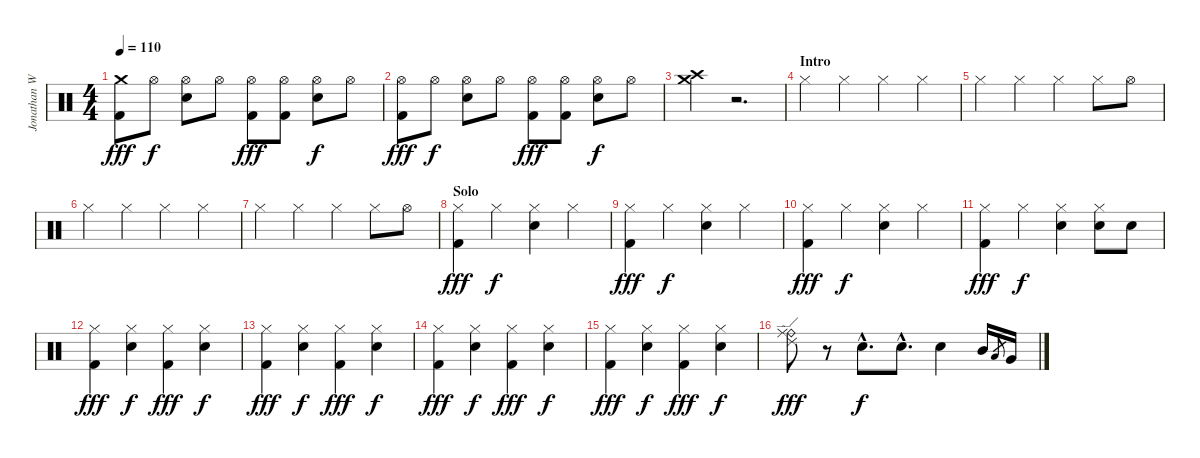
\track ("Jonathan Wenzel" "Jonathan W") {instrument percussion}
\staff {score}
\articulation defaults
\ts (4 4)
\tempo 110
\clef neutral
\ks c
("Crash medium (hit)" "Kick (hit) 2").8{dy fff} "Hi-Hat (open)".8{dy f} ("Hi-Hat (open)" "Electric Snare (hit)").8 "Hi-Hat (open)".8 ("Hi-Hat (open)" "Kick (hit) 2").8{dy fff} ("Hi-Hat (open)" "Kick (hit) 2").8 ("Hi-Hat (open)" "Electric Snare (hit)").8{dy f} "Hi-Hat (open)".8 |
("Hi-Hat (open)" "Kick (hit) 2").8{dy fff} "Hi-Hat (open)".8{dy f} ("Hi-Hat (open)" "Electric Snare (hit)").8 "Hi-Hat (open)".8 ("Hi-Hat (open)" "Kick (hit) 2").8{dy fff} ("Hi-Hat (open)" "Kick (hit) 2").8 ("Hi-Hat (open)" "Electric Snare (hit)").8{dy f} "Hi-Hat (open)".8 |
("Crash medium (hit)" "Crash high (hit)").4 r.2{d} |
\section ("" "Intro")
"Hi-Hat (closed)".4 "Hi-Hat (closed)".4 "Hi-Hat (closed)".4 "Hi-Hat (closed)".4 |
"Hi-Hat (closed)".4 "Hi-Hat (closed)".4 "Hi-Hat (closed)".4 "Hi-Hat (closed)".8 "Hi-Hat (open)".8 |
"Hi-Hat (closed)".4 "Hi-Hat (closed)".4 "Hi-Hat (closed)".4 "Hi-Hat (closed)".4 |
"Hi-Hat (closed)".4 "Hi-Hat (closed)".4 "Hi-Hat (closed)".4 "Hi-Hat (closed)".8 "Hi-Hat (open)".8 |
\section ("" "Solo")
("Hi-Hat (closed)" "Kick (hit) 2").4{dy fff} "Hi-Hat (closed)".4{dy f} ("Hi-Hat (closed)" "Electric Snare (hit)").4 "Hi-Hat (closed)".4 |
("Hi-Hat (closed)" "Kick (hit) 2").4{dy fff} "Hi-Hat (closed)".4{dy f} ("Hi-Hat (closed)" "Electric Snare (hit)").4 "Hi-Hat (closed)".4 |
("Hi-Hat (closed)" "Kick (hit) 2").4{dy fff} "Hi-Hat (closed)".4{dy f} ("Hi-Hat (closed)" "Electric Snare (hit)").4 "Hi-Hat (closed)".4 |
("Hi-Hat (closed)" "Kick (hit) 2").4{dy fff} "Hi-Hat (closed)".4{dy f} ("Hi-Hat (closed)" "Electric Snare (hit)").4 ("Hi-Hat (closed)" "Electric Snare (hit)").8 "Electric Snare (hit)".8 |
("Hi-Hat (closed)" "Kick (hit) 2").4{dy fff} ("Hi-Hat (closed)" "Electric Snare (hit)").4{dy f} ("Hi-Hat (closed)" "Kick (hit) 2").4{dy fff} ("Hi-Hat (closed)" "Electric Snare (hit)").4{dy f} |
("Hi-Hat (closed)" "Kick (hit) 2").4{dy fff} ("Hi-Hat (closed)" "Electric Snare (hit)").4{dy f} ("Hi-Hat (closed)" "Kick (hit) 2").4{dy fff} ("Hi-Hat (closed)" "Electric Snare (hit)").4{dy f} |
("Hi-Hat (closed)" "Kick (hit) 2").4{dy fff} ("Hi-Hat (closed)" "Electric Snare (hit)").4{dy f} ("Hi-Hat (closed)" "Kick (hit) 2").4{dy fff} ("Hi-Hat (closed)" "Electric Snare (hit)").4{dy f} |
("Hi-Hat (closed)" "Kick (hit) 2").4{dy fff} ("Hi-Hat (closed)" "Electric Snare (hit)").4{dy f} ("Hi-Hat (closed)" "Kick (hit) 2").4{dy fff} ("Hi-Hat (closed)" "Electric Snare (hit)").4{dy f} |
("Ride (bell)" "Ride (edge) 2" "Ride (middle)").8{dy fff} r.8 "Electric Snare (hit)"{hac}.8{d dy f} "Electric Snare (hit)"{hac}.8{d} "Electric Snare (hit)".4 "Mid Tom (hit)".16 "Low Floor Tom (hit)".8{gr} "Very Low Tom (hit)".16
